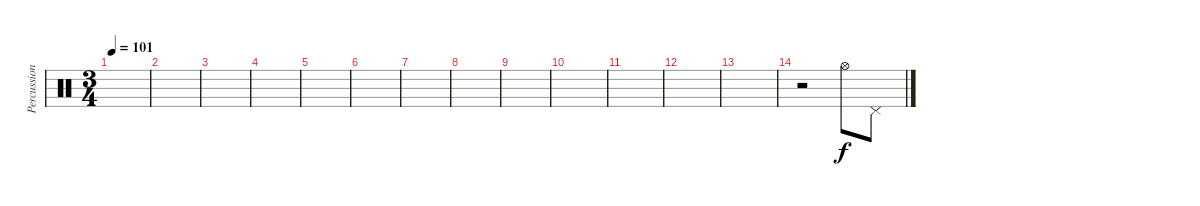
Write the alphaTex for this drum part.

\track ("Percussion" "Percussion") {instrument percussion}
\staff {score}
\articulation defaults
\ts (3 4)
\tempo 101
\clef neutral
\ks c
|
|
|
|
|
|
|
|
|
|
|
|
|
r.2 "Hi-Hat (open)".8 "Pedal Hi-Hat (hit)".8
